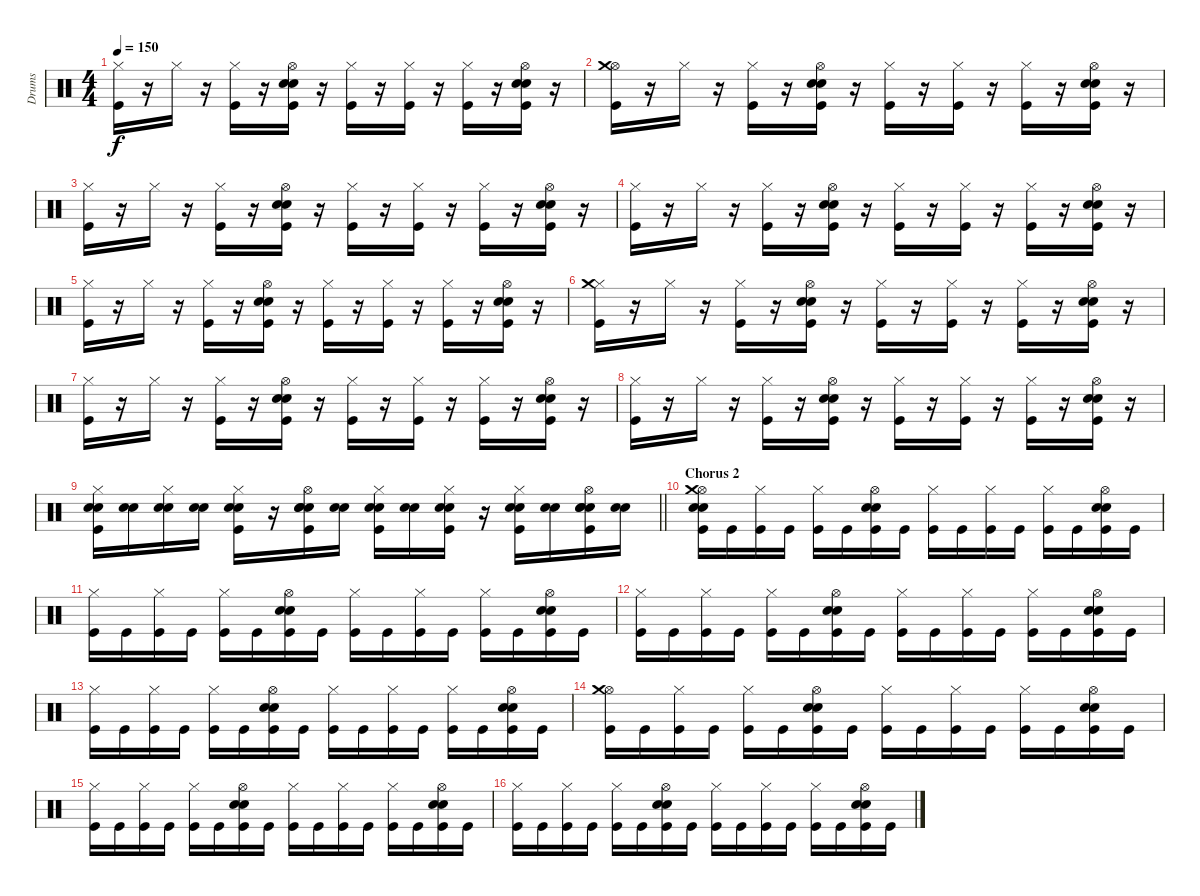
\track ("Drums" "Drums") {instrument percussion}
\staff {score}
\articulation defaults
\ts (4 4)
\tempo 150
\clef neutral
\ks c
("Hi-Hat (closed)" "Kick (hit)").16{dy f} r.16 "Hi-Hat (closed)".16 r.16 ("Hi-Hat (closed)" "Kick (hit)").16 r.16 ("Hi-Hat (open)" "Electric Snare (hit)" "Snare (hit) 2" "Kick (hit)").16 r.16 ("Hi-Hat (closed)" "Kick (hit)").16 r.16 ("Hi-Hat (closed)" "Kick (hit)").16 r.16 ("Hi-Hat (closed)" "Kick (hit)").16 r.16 ("Hi-Hat (open)" "Electric Snare (hit)" "Snare (hit) 2" "Kick (hit)").16 r.16 |
("Hi-Hat (open)" "Kick (hit)" "Crash medium (hit)").16 r.16 "Hi-Hat (closed)".16 r.16 ("Hi-Hat (closed)" "Kick (hit)").16 r.16 ("Hi-Hat (open)" "Electric Snare (hit)" "Snare (hit) 2" "Kick (hit)").16 r.16 ("Hi-Hat (closed)" "Kick (hit)").16 r.16 ("Hi-Hat (closed)" "Kick (hit)").16 r.16 ("Hi-Hat (closed)" "Kick (hit)").16 r.16 ("Hi-Hat (open)" "Electric Snare (hit)" "Snare (hit) 2" "Kick (hit)").16 r.16 |
("Hi-Hat (closed)" "Kick (hit)").16 r.16 "Hi-Hat (closed)".16 r.16 ("Hi-Hat (closed)" "Kick (hit)").16 r.16 ("Hi-Hat (open)" "Electric Snare (hit)" "Snare (hit) 2" "Kick (hit)").16 r.16 ("Hi-Hat (closed)" "Kick (hit)").16 r.16 ("Hi-Hat (closed)" "Kick (hit)").16 r.16 ("Hi-Hat (closed)" "Kick (hit)").16 r.16 ("Hi-Hat (open)" "Electric Snare (hit)" "Snare (hit) 2" "Kick (hit)").16 r.16 |
("Hi-Hat (closed)" "Kick (hit)").16 r.16 "Hi-Hat (closed)".16 r.16 ("Hi-Hat (closed)" "Kick (hit)").16 r.16 ("Hi-Hat (open)" "Electric Snare (hit)" "Snare (hit) 2" "Kick (hit)").16 r.16 ("Hi-Hat (closed)" "Kick (hit)").16 r.16 ("Hi-Hat (closed)" "Kick (hit)").16 r.16 ("Hi-Hat (closed)" "Kick (hit)").16 r.16 ("Hi-Hat (open)" "Electric Snare (hit)" "Snare (hit) 2" "Kick (hit)").16 r.16 |
("Hi-Hat (closed)" "Kick (hit)").16 r.16 "Hi-Hat (closed)".16 r.16 ("Hi-Hat (closed)" "Kick (hit)").16 r.16 ("Hi-Hat (open)" "Electric Snare (hit)" "Snare (hit) 2" "Kick (hit)").16 r.16 ("Hi-Hat (closed)" "Kick (hit)").16 r.16 ("Hi-Hat (closed)" "Kick (hit)").16 r.16 ("Hi-Hat (closed)" "Kick (hit)").16 r.16 ("Hi-Hat (open)" "Electric Snare (hit)" "Snare (hit) 2" "Kick (hit)").16 r.16 |
("Hi-Hat (closed)" "Kick (hit)" "Crash medium (hit)").16 r.16 "Hi-Hat (closed)".16 r.16 ("Hi-Hat (closed)" "Kick (hit)").16 r.16 ("Hi-Hat (open)" "Electric Snare (hit)" "Snare (hit) 2" "Kick (hit)").16 r.16 ("Hi-Hat (closed)" "Kick (hit)").16 r.16 ("Hi-Hat (closed)" "Kick (hit)").16 r.16 ("Hi-Hat (closed)" "Kick (hit)").16 r.16 ("Hi-Hat (open)" "Electric Snare (hit)" "Snare (hit) 2" "Kick (hit)").16 r.16 |
("Hi-Hat (closed)" "Kick (hit)").16 r.16 "Hi-Hat (closed)".16 r.16 ("Hi-Hat (closed)" "Kick (hit)").16 r.16 ("Hi-Hat (open)" "Electric Snare (hit)" "Snare (hit) 2" "Kick (hit)").16 r.16 ("Hi-Hat (closed)" "Kick (hit)").16 r.16 ("Hi-Hat (closed)" "Kick (hit)").16 r.16 ("Hi-Hat (closed)" "Kick (hit)").16 r.16 ("Hi-Hat (open)" "Electric Snare (hit)" "Snare (hit) 2" "Kick (hit)").16 r.16 |
("Hi-Hat (closed)" "Kick (hit)").16 r.16 "Hi-Hat (closed)".16 r.16 ("Hi-Hat (closed)" "Kick (hit)").16 r.16 ("Hi-Hat (open)" "Electric Snare (hit)" "Snare (hit) 2" "Kick (hit)").16 r.16 ("Hi-Hat (closed)" "Kick (hit)").16 r.16 ("Hi-Hat (closed)" "Kick (hit)").16 r.16 ("Hi-Hat (closed)" "Kick (hit)").16 r.16 ("Hi-Hat (open)" "Electric Snare (hit)" "Snare (hit) 2" "Kick (hit)").16 r.16 |
\barLineRight lightlight
("Snare (hit) 2" "Hi-Hat (closed)" "Electric Snare (hit)" "Kick (hit)").16 ("Snare (hit) 2" "Electric Snare (hit)").16 ("Snare (hit) 2" "Hi-Hat (closed)" "Electric Snare (hit)").16 ("Snare (hit) 2" "Electric Snare (hit)").16 ("Snare (hit) 2" "Hi-Hat (closed)" "Electric Snare (hit)" "Kick (hit)").16 r.16 ("Snare (hit) 2" "Hi-Hat (open)" "Electric Snare (hit)" "Snare (hit) 2" "Kick (hit)").16 ("Snare (hit) 2" "Electric Snare (hit)").16 ("Snare (hit) 2" "Hi-Hat (closed)" "Electric Snare (hit)" "Kick (hit)").16 ("Snare (hit) 2" "Electric Snare (hit)").16 ("Snare (hit) 2" "Hi-Hat (closed)" "Electric Snare (hit)" "Kick (hit)").16 r.16 ("Snare (hit) 2" "Hi-Hat (closed)" "Electric Snare (hit)" "Kick (hit)").16 ("Snare (hit) 2" "Electric Snare (hit)").16 ("Snare (hit) 2" "Hi-Hat (open)" "Electric Snare (hit)" "Snare (hit) 2" "Kick (hit)").16 ("Snare (hit) 2" "Electric Snare (hit)").16 |
\section ("" "Chorus 2")
("Snare (hit) 2" "Hi-Hat (open)" "Electric Snare (hit)" "Kick (hit)" "Crash medium (hit)").16 "Kick (hit)".16 ("Hi-Hat (closed)" "Kick (hit)").16 "Kick (hit)".16 ("Hi-Hat (closed)" "Kick (hit)").16 "Kick (hit)".16 ("Hi-Hat (open)" "Electric Snare (hit)" "Snare (hit) 2" "Kick (hit)").16 "Kick (hit)".16 ("Hi-Hat (closed)" "Kick (hit)").16 "Kick (hit)".16 ("Hi-Hat (closed)" "Kick (hit)").16 "Kick (hit)".16 ("Hi-Hat (closed)" "Kick (hit)").16 "Kick (hit)".16 ("Hi-Hat (open)" "Electric Snare (hit)" "Snare (hit) 2" "Kick (hit)").16 "Kick (hit)".16 |
("Hi-Hat (closed)" "Kick (hit)").16 "Kick (hit)".16 ("Hi-Hat (closed)" "Kick (hit)").16 "Kick (hit)".16 ("Hi-Hat (closed)" "Kick (hit)").16 "Kick (hit)".16 ("Hi-Hat (open)" "Electric Snare (hit)" "Snare (hit) 2" "Kick (hit)").16 "Kick (hit)".16 ("Hi-Hat (closed)" "Kick (hit)").16 "Kick (hit)".16 ("Hi-Hat (closed)" "Kick (hit)").16 "Kick (hit)".16 ("Hi-Hat (closed)" "Kick (hit)").16 "Kick (hit)".16 ("Hi-Hat (open)" "Electric Snare (hit)" "Snare (hit) 2" "Kick (hit)").16 "Kick (hit)".16 |
("Hi-Hat (closed)" "Kick (hit)").16 "Kick (hit)".16 ("Hi-Hat (closed)" "Kick (hit)").16 "Kick (hit)".16 ("Hi-Hat (closed)" "Kick (hit)").16 "Kick (hit)".16 ("Hi-Hat (open)" "Electric Snare (hit)" "Snare (hit) 2" "Kick (hit)").16 "Kick (hit)".16 ("Hi-Hat (closed)" "Kick (hit)").16 "Kick (hit)".16 ("Hi-Hat (closed)" "Kick (hit)").16 "Kick (hit)".16 ("Hi-Hat (closed)" "Kick (hit)").16 "Kick (hit)".16 ("Hi-Hat (open)" "Electric Snare (hit)" "Snare (hit) 2" "Kick (hit)").16 "Kick (hit)".16 |
("Hi-Hat (closed)" "Kick (hit)").16 "Kick (hit)".16 ("Hi-Hat (closed)" "Kick (hit)").16 "Kick (hit)".16 ("Hi-Hat (closed)" "Kick (hit)").16 "Kick (hit)".16 ("Hi-Hat (open)" "Electric Snare (hit)" "Snare (hit) 2" "Kick (hit)").16 "Kick (hit)".16 ("Hi-Hat (closed)" "Kick (hit)").16 "Kick (hit)".16 ("Hi-Hat (closed)" "Kick (hit)").16 "Kick (hit)".16 ("Hi-Hat (closed)" "Kick (hit)").16 "Kick (hit)".16 ("Hi-Hat (open)" "Electric Snare (hit)" "Snare (hit) 2" "Kick (hit)").16 "Kick (hit)".16 |
("Hi-Hat (open)" "Kick (hit)" "Crash medium (hit)").16 "Kick (hit)".16 ("Hi-Hat (closed)" "Kick (hit)").16 "Kick (hit)".16 ("Hi-Hat (closed)" "Kick (hit)").16 "Kick (hit)".16 ("Hi-Hat (open)" "Electric Snare (hit)" "Snare (hit) 2" "Kick (hit)").16 "Kick (hit)".16 ("Hi-Hat (closed)" "Kick (hit)").16 "Kick (hit)".16 ("Hi-Hat (closed)" "Kick (hit)").16 "Kick (hit)".16 ("Hi-Hat (closed)" "Kick (hit)").16 "Kick (hit)".16 ("Hi-Hat (open)" "Electric Snare (hit)" "Snare (hit) 2" "Kick (hit)").16 "Kick (hit)".16 |
("Hi-Hat (closed)" "Kick (hit)").16 "Kick (hit)".16 ("Hi-Hat (closed)" "Kick (hit)").16 "Kick (hit)".16 ("Hi-Hat (closed)" "Kick (hit)").16 "Kick (hit)".16 ("Hi-Hat (open)" "Electric Snare (hit)" "Snare (hit) 2" "Kick (hit)").16 "Kick (hit)".16 ("Hi-Hat (closed)" "Kick (hit)").16 "Kick (hit)".16 ("Hi-Hat (closed)" "Kick (hit)").16 "Kick (hit)".16 ("Hi-Hat (closed)" "Kick (hit)").16 "Kick (hit)".16 ("Hi-Hat (open)" "Electric Snare (hit)" "Snare (hit) 2" "Kick (hit)").16 "Kick (hit)".16 |
("Hi-Hat (closed)" "Kick (hit)").16 "Kick (hit)".16 ("Hi-Hat (closed)" "Kick (hit)").16 "Kick (hit)".16 ("Hi-Hat (closed)" "Kick (hit)").16 "Kick (hit)".16 ("Hi-Hat (open)" "Electric Snare (hit)" "Snare (hit) 2" "Kick (hit)").16 "Kick (hit)".16 ("Hi-Hat (closed)" "Kick (hit)").16 "Kick (hit)".16 ("Hi-Hat (closed)" "Kick (hit)").16 "Kick (hit)".16 ("Hi-Hat (closed)" "Kick (hit)").16 "Kick (hit)".16 ("Hi-Hat (open)" "Electric Snare (hit)" "Snare (hit) 2" "Kick (hit)").16 "Kick (hit)".16
